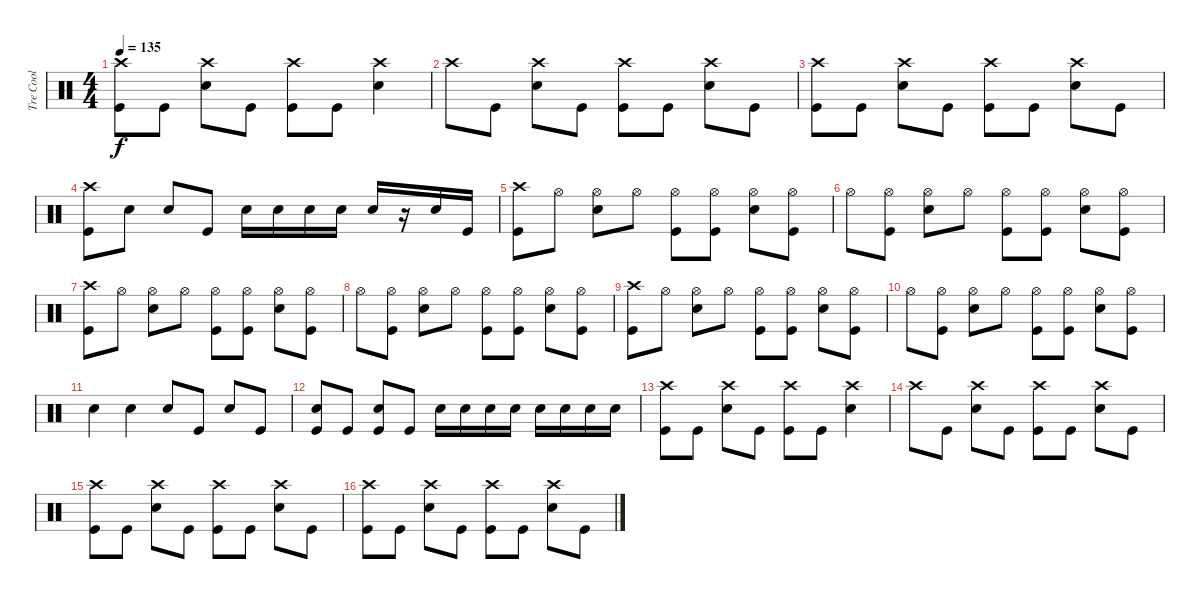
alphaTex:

\track ("Tre Cool" "Tre Cool") {instrument percussion}
\staff {score}
\articulation defaults
\ts (4 4)
\tempo 135
\clef neutral
\ks c
("Crash high (hit)" "Kick (hit)").8{dy f} "Kick (hit)".8 ("Crash high (hit)" "Snare (hit) 2").8 "Kick (hit)".8 ("Crash high (hit)" "Kick (hit)").8 "Kick (hit)".8 ("Crash high (hit)" "Snare (hit) 2").4 |
"Crash high (hit)".8 "Kick (hit)".8 ("Crash high (hit)" "Snare (hit) 2").8 "Kick (hit)".8 ("Crash high (hit)" "Kick (hit)").8 "Kick (hit)".8 ("Crash high (hit)" "Snare (hit) 2").8 "Kick (hit)".8 |
("Crash high (hit)" "Kick (hit)").8 "Kick (hit)".8 ("Crash high (hit)" "Snare (hit) 2").8 "Kick (hit)".8 ("Crash high (hit)" "Kick (hit)").8 "Kick (hit)".8 ("Crash high (hit)" "Snare (hit) 2").8 "Kick (hit)".8 |
("Crash high (hit)" "Kick (hit)").8 "Snare (hit) 2".8 "Snare (hit) 2".8 "Kick (hit)".8 "Snare (hit) 2".16 "Snare (hit) 2".16 "Snare (hit) 2".16 "Snare (hit) 2".16 "Snare (hit) 2".16 r.16 "Snare (hit) 2".16 "Kick (hit)".16 |
("Crash high (hit)" "Kick (hit)").8 "Hi-Hat (open)".8 ("Hi-Hat (open)" "Snare (hit) 2").8 "Hi-Hat (open)".8 ("Hi-Hat (open)" "Kick (hit)").8 ("Hi-Hat (open)" "Kick (hit)").8 ("Hi-Hat (open)" "Snare (hit) 2").8 ("Hi-Hat (open)" "Kick (hit)").8 |
"Hi-Hat (open)".8 ("Hi-Hat (open)" "Kick (hit)").8 ("Hi-Hat (open)" "Snare (hit) 2").8 "Hi-Hat (open)".8 ("Hi-Hat (open)" "Kick (hit)").8 ("Hi-Hat (open)" "Kick (hit)").8 ("Hi-Hat (open)" "Snare (hit) 2").8 ("Hi-Hat (open)" "Kick (hit)").8 |
("Crash high (hit)" "Kick (hit)").8 "Hi-Hat (open)".8 ("Hi-Hat (open)" "Snare (hit) 2").8 "Hi-Hat (open)".8 ("Hi-Hat (open)" "Kick (hit)").8 ("Hi-Hat (open)" "Kick (hit)").8 ("Hi-Hat (open)" "Snare (hit) 2").8 ("Hi-Hat (open)" "Kick (hit)").8 |
"Hi-Hat (open)".8 ("Hi-Hat (open)" "Kick (hit)").8 ("Hi-Hat (open)" "Snare (hit) 2").8 "Hi-Hat (open)".8 ("Hi-Hat (open)" "Kick (hit)").8 ("Hi-Hat (open)" "Kick (hit)").8 ("Hi-Hat (open)" "Snare (hit) 2").8 ("Hi-Hat (open)" "Kick (hit)").8 |
("Crash high (hit)" "Kick (hit)").8 "Hi-Hat (open)".8 ("Hi-Hat (open)" "Snare (hit) 2").8 "Hi-Hat (open)".8 ("Hi-Hat (open)" "Kick (hit)").8 ("Hi-Hat (open)" "Kick (hit)").8 ("Hi-Hat (open)" "Snare (hit) 2").8 ("Hi-Hat (open)" "Kick (hit)").8 |
"Hi-Hat (open)".8 ("Hi-Hat (open)" "Kick (hit)").8 ("Hi-Hat (open)" "Snare (hit) 2").8 "Hi-Hat (open)".8 ("Hi-Hat (open)" "Kick (hit)").8 ("Hi-Hat (open)" "Kick (hit)").8 ("Hi-Hat (open)" "Snare (hit) 2").8 ("Hi-Hat (open)" "Kick (hit)").8 |
"Snare (hit) 2".4 "Snare (hit) 2".4 "Snare (hit) 2".8 "Kick (hit)".8 "Snare (hit) 2".8 "Kick (hit)".8 |
("Snare (hit) 2" "Kick (hit)").8 "Kick (hit)".8 ("Snare (hit) 2" "Kick (hit)").8 "Kick (hit)".8 "Snare (hit) 2".16 "Snare (hit) 2".16 "Snare (hit) 2".16 "Snare (hit) 2".16 "Snare (hit) 2".16 "Snare (hit) 2".16 "Snare (hit) 2".16 "Snare (hit) 2".16 |
("Crash high (hit)" "Kick (hit)").8 "Kick (hit)".8 ("Crash high (hit)" "Snare (hit) 2").8 "Kick (hit)".8 ("Crash high (hit)" "Kick (hit)").8 "Kick (hit)".8 ("Crash high (hit)" "Snare (hit) 2").4 |
"Crash high (hit)".8 "Kick (hit)".8 ("Crash high (hit)" "Snare (hit) 2").8 "Kick (hit)".8 ("Crash high (hit)" "Kick (hit)").8 "Kick (hit)".8 ("Crash high (hit)" "Snare (hit) 2").8 "Kick (hit)".8 |
("Crash high (hit)" "Kick (hit)").8 "Kick (hit)".8 ("Crash high (hit)" "Snare (hit) 2").8 "Kick (hit)".8 ("Crash high (hit)" "Kick (hit)").8 "Kick (hit)".8 ("Crash high (hit)" "Snare (hit) 2").8 "Kick (hit)".8 |
("Crash high (hit)" "Kick (hit)").8 "Kick (hit)".8 ("Crash high (hit)" "Snare (hit) 2").8 "Kick (hit)".8 ("Crash high (hit)" "Kick (hit)").8 "Kick (hit)".8 ("Crash high (hit)" "Snare (hit) 2").8 "Kick (hit)".8
